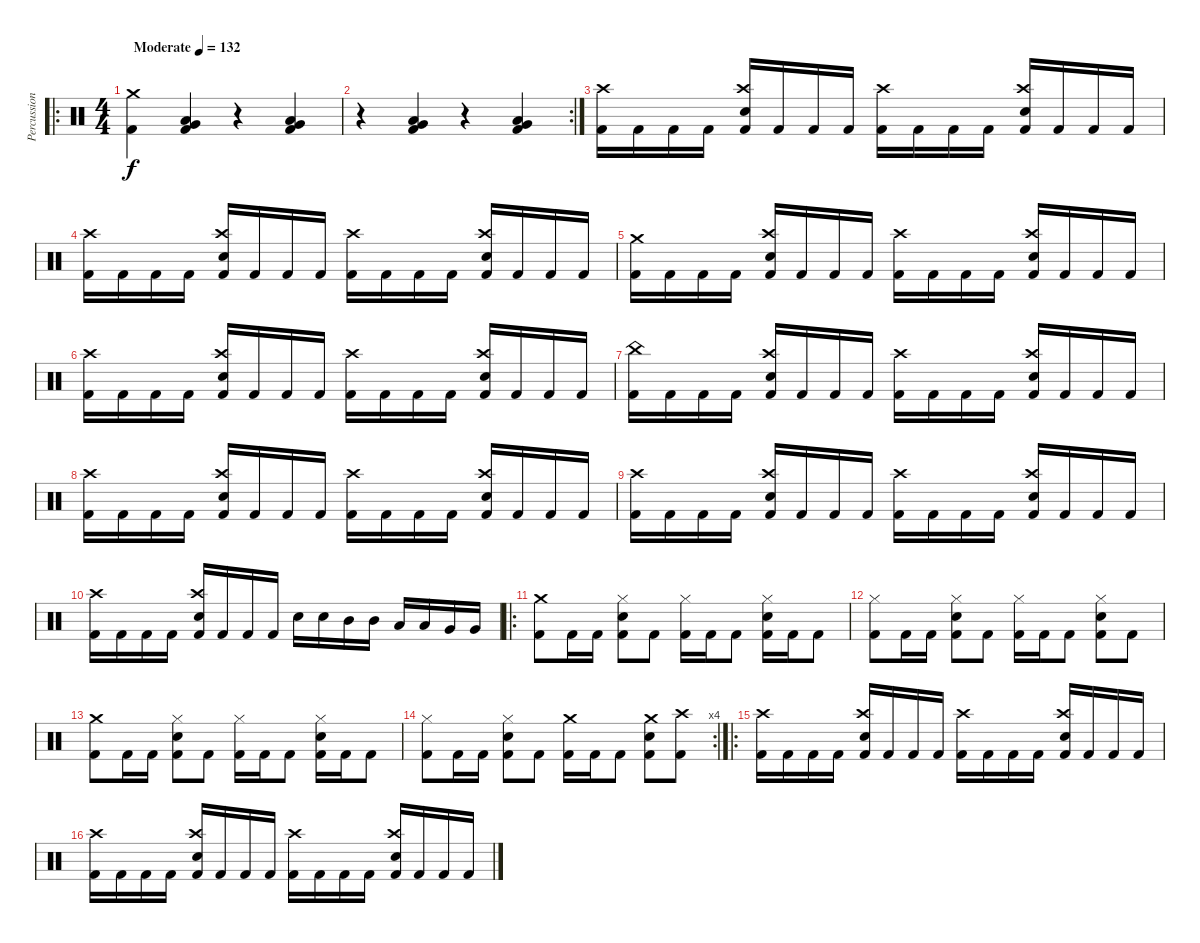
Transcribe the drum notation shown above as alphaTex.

\track ("Percussion" "Percussion") {instrument percussion}
\staff {score}
\articulation defaults
\ro
\ts (4 4)
\tempo (132 "Moderate")
\clef neutral
\ks c
("Kick (hit) 2" "Crash medium (hit)").4{dy f} ("Kick (hit) 2" "Low Tom (hit)" "Very Low Tom (hit)").4 r.4 ("Kick (hit) 2" "Low Tom (hit)" "Very Low Tom (hit)").4 |
\rc 2
r.4 ("Kick (hit) 2" "Low Tom (hit)" "Very Low Tom (hit)").4 r.4 ("Kick (hit) 2" "Low Tom (hit)" "Very Low Tom (hit)").4 |
("Kick (hit) 2" "Crash high (hit)").16 "Kick (hit) 2".16 "Kick (hit) 2".16 "Kick (hit) 2".16 ("Snare (hit) 2" "Kick (hit) 2" "Crash high (hit)").16 "Kick (hit) 2".16 "Kick (hit) 2".16 "Kick (hit) 2".16 ("Kick (hit) 2" "Crash high (hit)").16 "Kick (hit) 2".16 "Kick (hit) 2".16 "Kick (hit) 2".16 ("Snare (hit) 2" "Kick (hit) 2" "Crash high (hit)").16 "Kick (hit) 2".16 "Kick (hit) 2".16 "Kick (hit) 2".16 |
("Kick (hit) 2" "Crash high (hit)").16 "Kick (hit) 2".16 "Kick (hit) 2".16 "Kick (hit) 2".16 ("Snare (hit) 2" "Kick (hit) 2" "Crash high (hit)").16 "Kick (hit) 2".16 "Kick (hit) 2".16 "Kick (hit) 2".16 ("Kick (hit) 2" "Crash high (hit)").16 "Kick (hit) 2".16 "Kick (hit) 2".16 "Kick (hit) 2".16 ("Snare (hit) 2" "Kick (hit) 2" "Crash high (hit)").16 "Kick (hit) 2".16 "Kick (hit) 2".16 "Kick (hit) 2".16 |
("Kick (hit) 2" "Crash medium (hit)").16 "Kick (hit) 2".16 "Kick (hit) 2".16 "Kick (hit) 2".16 ("Snare (hit) 2" "Kick (hit) 2" "Crash high (hit)").16 "Kick (hit) 2".16 "Kick (hit) 2".16 "Kick (hit) 2".16 ("Kick (hit) 2" "Crash high (hit)").16 "Kick (hit) 2".16 "Kick (hit) 2".16 "Kick (hit) 2".16 ("Snare (hit) 2" "Kick (hit) 2" "Crash high (hit)").16 "Kick (hit) 2".16 "Kick (hit) 2".16 "Kick (hit) 2".16 |
("Kick (hit) 2" "Crash high (hit)").16 "Kick (hit) 2".16 "Kick (hit) 2".16 "Kick (hit) 2".16 ("Snare (hit) 2" "Kick (hit) 2" "Crash high (hit)").16 "Kick (hit) 2".16 "Kick (hit) 2".16 "Kick (hit) 2".16 ("Kick (hit) 2" "Crash high (hit)").16 "Kick (hit) 2".16 "Kick (hit) 2".16 "Kick (hit) 2".16 ("Snare (hit) 2" "Kick (hit) 2" "Crash high (hit)").16 "Kick (hit) 2".16 "Kick (hit) 2".16 "Kick (hit) 2".16 |
("Kick (hit) 2" "China (hit)").16 "Kick (hit) 2".16 "Kick (hit) 2".16 "Kick (hit) 2".16 ("Snare (hit) 2" "Kick (hit) 2" "Crash high (hit)").16 "Kick (hit) 2".16 "Kick (hit) 2".16 "Kick (hit) 2".16 ("Kick (hit) 2" "Crash high (hit)").16 "Kick (hit) 2".16 "Kick (hit) 2".16 "Kick (hit) 2".16 ("Snare (hit) 2" "Kick (hit) 2" "Crash high (hit)").16 "Kick (hit) 2".16 "Kick (hit) 2".16 "Kick (hit) 2".16 |
("Kick (hit) 2" "Crash high (hit)").16 "Kick (hit) 2".16 "Kick (hit) 2".16 "Kick (hit) 2".16 ("Snare (hit) 2" "Kick (hit) 2" "Crash high (hit)").16 "Kick (hit) 2".16 "Kick (hit) 2".16 "Kick (hit) 2".16 ("Kick (hit) 2" "Crash high (hit)").16 "Kick (hit) 2".16 "Kick (hit) 2".16 "Kick (hit) 2".16 ("Snare (hit) 2" "Kick (hit) 2" "Crash high (hit)").16 "Kick (hit) 2".16 "Kick (hit) 2".16 "Kick (hit) 2".16 |
("Kick (hit) 2" "Crash high (hit)").16 "Kick (hit) 2".16 "Kick (hit) 2".16 "Kick (hit) 2".16 ("Snare (hit) 2" "Kick (hit) 2" "Crash high (hit)").16 "Kick (hit) 2".16 "Kick (hit) 2".16 "Kick (hit) 2".16 ("Kick (hit) 2" "Crash high (hit)").16 "Kick (hit) 2".16 "Kick (hit) 2".16 "Kick (hit) 2".16 ("Snare (hit) 2" "Kick (hit) 2" "Crash high (hit)").16 "Kick (hit) 2".16 "Kick (hit) 2".16 "Kick (hit) 2".16 |
("Kick (hit) 2" "Crash high (hit)").16 "Kick (hit) 2".16 "Kick (hit) 2".16 "Kick (hit) 2".16 ("Snare (hit) 2" "Kick (hit) 2" "Crash high (hit)").16 "Kick (hit) 2".16 "Kick (hit) 2".16 "Kick (hit) 2".16 "Snare (hit) 2".16 "Snare (hit) 2".16 "Mid Tom (hit)".16 "Mid Tom (hit)".16 "Low Tom (hit)".16 "Low Tom (hit)".16 "Very Low Tom (hit)".16 "Very Low Tom (hit)".16 |
\ro
("Kick (hit) 2" "Crash medium (hit)").8 "Kick (hit) 2".16 "Kick (hit) 2".16 ("Hi-Hat (closed)" "Kick (hit) 2" "Snare (hit) 2").8 "Kick (hit) 2".8 ("Kick (hit) 2" "Hi-Hat (closed)").16 "Kick (hit) 2".16 "Kick (hit) 2".8 ("Kick (hit) 2" "Hi-Hat (closed)" "Snare (hit) 2").16 "Kick (hit) 2".16 "Kick (hit) 2".8 |
("Kick (hit) 2" "Hi-Hat (closed)").8 "Kick (hit) 2".16 "Kick (hit) 2".16 ("Hi-Hat (closed)" "Kick (hit) 2" "Snare (hit) 2").8 "Kick (hit) 2".8 ("Kick (hit) 2" "Hi-Hat (closed)").16 "Kick (hit) 2".16 "Kick (hit) 2".8 ("Kick (hit) 2" "Hi-Hat (closed)" "Snare (hit) 2").8 "Kick (hit) 2".8 |
("Kick (hit) 2" "Crash medium (hit)").8 "Kick (hit) 2".16 "Kick (hit) 2".16 ("Hi-Hat (closed)" "Kick (hit) 2" "Snare (hit) 2").8 "Kick (hit) 2".8 ("Kick (hit) 2" "Hi-Hat (closed)").16 "Kick (hit) 2".16 "Kick (hit) 2".8 ("Kick (hit) 2" "Hi-Hat (closed)" "Snare (hit) 2").16 "Kick (hit) 2".16 "Kick (hit) 2".8 |
\rc 4
("Kick (hit) 2" "Hi-Hat (closed)").8 "Kick (hit) 2".16 "Kick (hit) 2".16 ("Hi-Hat (closed)" "Kick (hit) 2" "Snare (hit) 2").8 "Kick (hit) 2".8 ("Kick (hit) 2" "Crash medium (hit)").16 "Kick (hit) 2".16 "Kick (hit) 2".8 ("Kick (hit) 2" "Crash medium (hit)" "Snare (hit) 2").8 ("Crash high (hit)" "Kick (hit) 2").8 |
\ro
("Kick (hit) 2" "Crash high (hit)").16 "Kick (hit) 2".16 "Kick (hit) 2".16 "Kick (hit) 2".16 ("Snare (hit) 2" "Kick (hit) 2" "Crash high (hit)").16 "Kick (hit) 2".16 "Kick (hit) 2".16 "Kick (hit) 2".16 ("Kick (hit) 2" "Crash high (hit)").16 "Kick (hit) 2".16 "Kick (hit) 2".16 "Kick (hit) 2".16 ("Snare (hit) 2" "Kick (hit) 2" "Crash high (hit)").16 "Kick (hit) 2".16 "Kick (hit) 2".16 "Kick (hit) 2".16 |
("Kick (hit) 2" "Crash high (hit)").16 "Kick (hit) 2".16 "Kick (hit) 2".16 "Kick (hit) 2".16 ("Snare (hit) 2" "Kick (hit) 2" "Crash high (hit)").16 "Kick (hit) 2".16 "Kick (hit) 2".16 "Kick (hit) 2".16 ("Kick (hit) 2" "Crash high (hit)").16 "Kick (hit) 2".16 "Kick (hit) 2".16 "Kick (hit) 2".16 ("Snare (hit) 2" "Kick (hit) 2" "Crash high (hit)").16 "Kick (hit) 2".16 "Kick (hit) 2".16 "Kick (hit) 2".16
